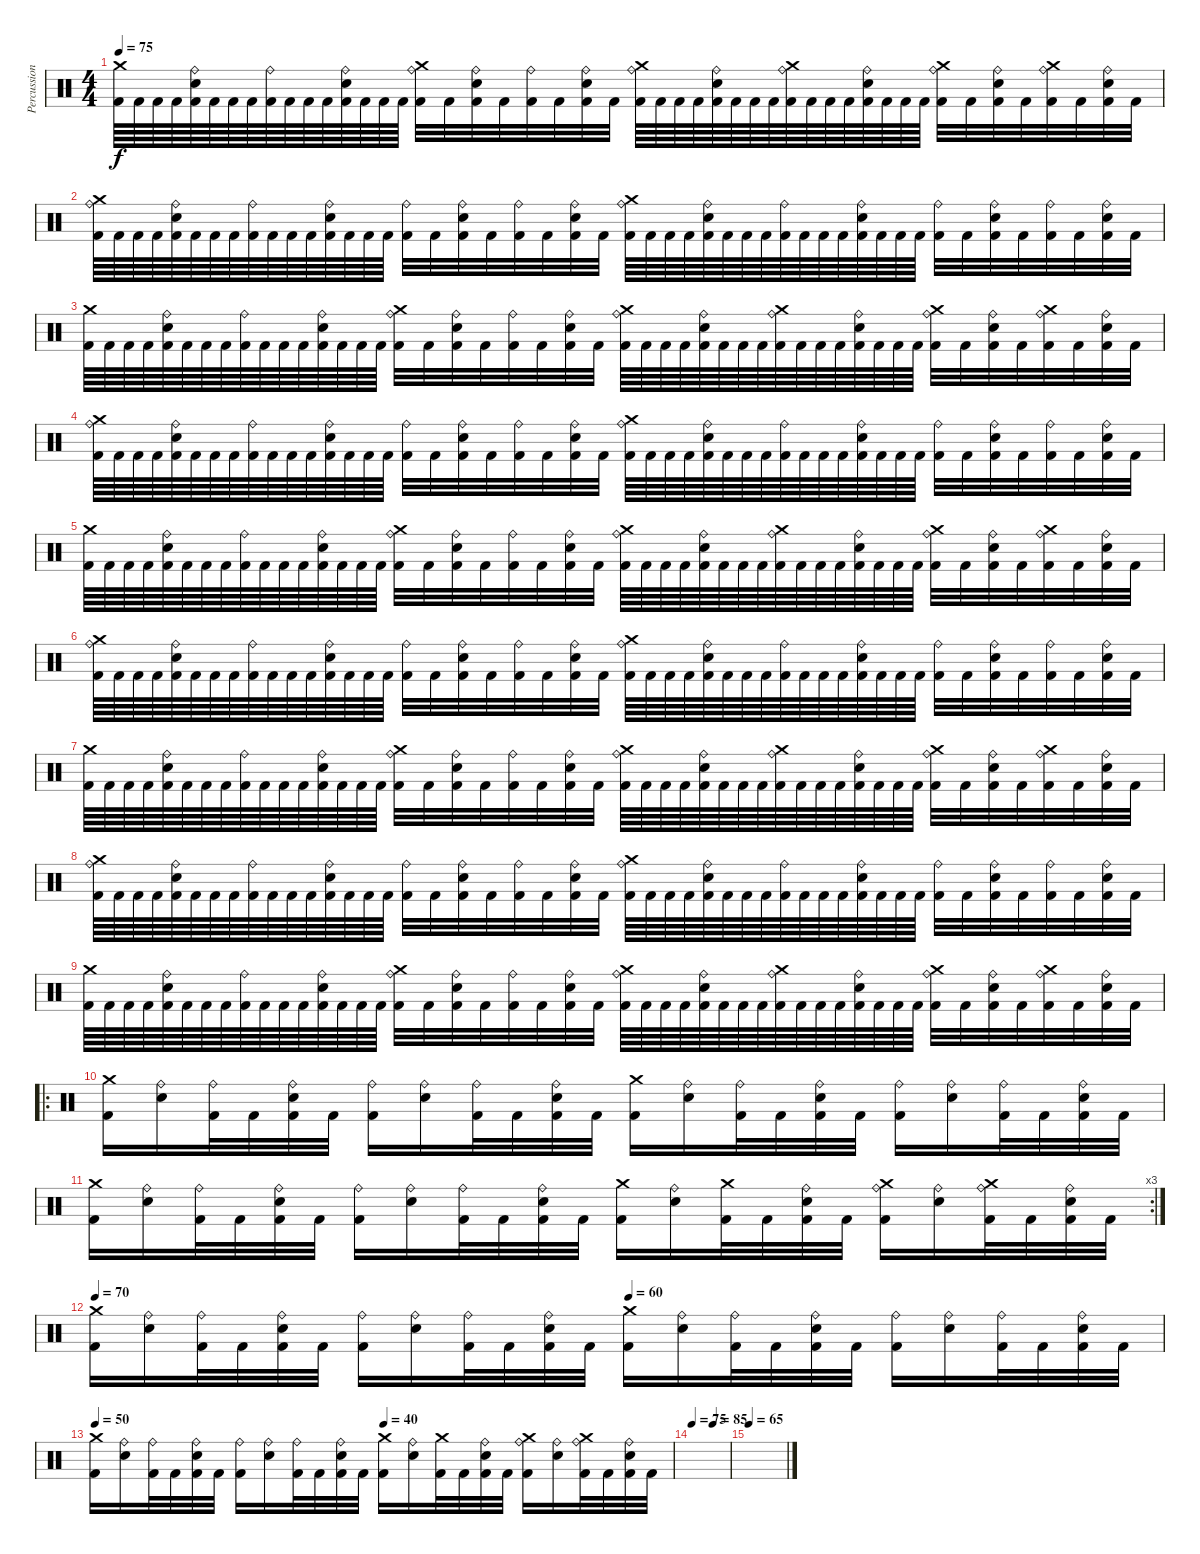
\track ("Percussion" "Percussion") {instrument percussion}
\staff {score}
\articulation defaults
\ts (4 4)
\tempo 75
\clef neutral
\ks c
("Crash medium (hit)" "Kick (hit) 2").64{dy f} "Kick (hit) 2".64 "Kick (hit) 2".64 "Kick (hit) 2".64 ("Ride (bell)" "Electric Snare (hit)" "Kick (hit) 2").64 "Kick (hit) 2".64 "Kick (hit) 2".64 "Kick (hit) 2".64 ("Ride (bell)" "Kick (hit) 2").64 "Kick (hit) 2".64 "Kick (hit) 2".64 "Kick (hit) 2".64 ("Ride (bell)" "Electric Snare (hit)" "Kick (hit) 2").64 "Kick (hit) 2".64 "Kick (hit) 2".64 "Kick (hit) 2".64 ("Crash medium (hit)" "Ride (bell)" "Kick (hit) 2").32 "Kick (hit) 2".32 ("Ride (bell)" "Electric Snare (hit)" "Kick (hit) 2").32 "Kick (hit) 2".32 ("Ride (bell)" "Kick (hit) 2").32 "Kick (hit) 2".32 ("Ride (bell)" "Electric Snare (hit)" "Kick (hit) 2").32 "Kick (hit) 2".32 ("Crash medium (hit)" "Ride (bell)" "Kick (hit) 2").64 "Kick (hit) 2".64 "Kick (hit) 2".64 "Kick (hit) 2".64 ("Ride (bell)" "Electric Snare (hit)" "Kick (hit) 2").64 "Kick (hit) 2".64 "Kick (hit) 2".64 "Kick (hit) 2".64 ("Crash medium (hit)" "Ride (bell)" "Kick (hit) 2").64 "Kick (hit) 2".64 "Kick (hit) 2".64 "Kick (hit) 2".64 ("Ride (bell)" "Electric Snare (hit)" "Kick (hit) 2").64 "Kick (hit) 2".64 "Kick (hit) 2".64 "Kick (hit) 2".64 ("Crash medium (hit)" "Ride (bell)" "Kick (hit) 2").32 "Kick (hit) 2".32 ("Ride (bell)" "Electric Snare (hit)" "Kick (hit) 2").32 "Kick (hit) 2".32 ("Crash medium (hit)" "Ride (bell)" "Kick (hit) 2").32 "Kick (hit) 2".32 ("Ride (bell)" "Electric Snare (hit)" "Kick (hit) 2").32 "Kick (hit) 2".32 |
("Crash medium (hit)" "Ride (bell)" "Kick (hit) 2").64 "Kick (hit) 2".64 "Kick (hit) 2".64 "Kick (hit) 2".64 ("Ride (bell)" "Electric Snare (hit)" "Kick (hit) 2").64 "Kick (hit) 2".64 "Kick (hit) 2".64 "Kick (hit) 2".64 ("Ride (bell)" "Kick (hit) 2").64 "Kick (hit) 2".64 "Kick (hit) 2".64 "Kick (hit) 2".64 ("Ride (bell)" "Electric Snare (hit)" "Kick (hit) 2").64 "Kick (hit) 2".64 "Kick (hit) 2".64 "Kick (hit) 2".64 ("Ride (bell)" "Kick (hit) 2").32 "Kick (hit) 2".32 ("Ride (bell)" "Electric Snare (hit)" "Kick (hit) 2").32 "Kick (hit) 2".32 ("Ride (bell)" "Kick (hit) 2").32 "Kick (hit) 2".32 ("Ride (bell)" "Electric Snare (hit)" "Kick (hit) 2").32 "Kick (hit) 2".32 ("Crash medium (hit)" "Ride (bell)" "Kick (hit) 2").64 "Kick (hit) 2".64 "Kick (hit) 2".64 "Kick (hit) 2".64 ("Ride (bell)" "Electric Snare (hit)" "Kick (hit) 2").64 "Kick (hit) 2".64 "Kick (hit) 2".64 "Kick (hit) 2".64 ("Ride (bell)" "Kick (hit) 2").64 "Kick (hit) 2".64 "Kick (hit) 2".64 "Kick (hit) 2".64 ("Ride (bell)" "Electric Snare (hit)" "Kick (hit) 2").64 "Kick (hit) 2".64 "Kick (hit) 2".64 "Kick (hit) 2".64 ("Ride (bell)" "Kick (hit) 2").32 "Kick (hit) 2".32 ("Ride (bell)" "Electric Snare (hit)" "Kick (hit) 2").32 "Kick (hit) 2".32 ("Ride (bell)" "Kick (hit) 2").32 "Kick (hit) 2".32 ("Ride (bell)" "Electric Snare (hit)" "Kick (hit) 2").32 "Kick (hit) 2".32 |
("Crash medium (hit)" "Kick (hit) 2").64 "Kick (hit) 2".64 "Kick (hit) 2".64 "Kick (hit) 2".64 ("Ride (bell)" "Electric Snare (hit)" "Kick (hit) 2").64 "Kick (hit) 2".64 "Kick (hit) 2".64 "Kick (hit) 2".64 ("Ride (bell)" "Kick (hit) 2").64 "Kick (hit) 2".64 "Kick (hit) 2".64 "Kick (hit) 2".64 ("Ride (bell)" "Electric Snare (hit)" "Kick (hit) 2").64 "Kick (hit) 2".64 "Kick (hit) 2".64 "Kick (hit) 2".64 ("Crash medium (hit)" "Ride (bell)" "Kick (hit) 2").32 "Kick (hit) 2".32 ("Ride (bell)" "Electric Snare (hit)" "Kick (hit) 2").32 "Kick (hit) 2".32 ("Ride (bell)" "Kick (hit) 2").32 "Kick (hit) 2".32 ("Ride (bell)" "Electric Snare (hit)" "Kick (hit) 2").32 "Kick (hit) 2".32 ("Crash medium (hit)" "Ride (bell)" "Kick (hit) 2").64 "Kick (hit) 2".64 "Kick (hit) 2".64 "Kick (hit) 2".64 ("Ride (bell)" "Electric Snare (hit)" "Kick (hit) 2").64 "Kick (hit) 2".64 "Kick (hit) 2".64 "Kick (hit) 2".64 ("Crash medium (hit)" "Ride (bell)" "Kick (hit) 2").64 "Kick (hit) 2".64 "Kick (hit) 2".64 "Kick (hit) 2".64 ("Ride (bell)" "Electric Snare (hit)" "Kick (hit) 2").64 "Kick (hit) 2".64 "Kick (hit) 2".64 "Kick (hit) 2".64 ("Crash medium (hit)" "Ride (bell)" "Kick (hit) 2").32 "Kick (hit) 2".32 ("Ride (bell)" "Electric Snare (hit)" "Kick (hit) 2").32 "Kick (hit) 2".32 ("Crash medium (hit)" "Ride (bell)" "Kick (hit) 2").32 "Kick (hit) 2".32 ("Ride (bell)" "Electric Snare (hit)" "Kick (hit) 2").32 "Kick (hit) 2".32 |
("Crash medium (hit)" "Ride (bell)" "Kick (hit) 2").64 "Kick (hit) 2".64 "Kick (hit) 2".64 "Kick (hit) 2".64 ("Ride (bell)" "Electric Snare (hit)" "Kick (hit) 2").64 "Kick (hit) 2".64 "Kick (hit) 2".64 "Kick (hit) 2".64 ("Ride (bell)" "Kick (hit) 2").64 "Kick (hit) 2".64 "Kick (hit) 2".64 "Kick (hit) 2".64 ("Ride (bell)" "Electric Snare (hit)" "Kick (hit) 2").64 "Kick (hit) 2".64 "Kick (hit) 2".64 "Kick (hit) 2".64 ("Ride (bell)" "Kick (hit) 2").32 "Kick (hit) 2".32 ("Ride (bell)" "Electric Snare (hit)" "Kick (hit) 2").32 "Kick (hit) 2".32 ("Ride (bell)" "Kick (hit) 2").32 "Kick (hit) 2".32 ("Ride (bell)" "Electric Snare (hit)" "Kick (hit) 2").32 "Kick (hit) 2".32 ("Crash medium (hit)" "Ride (bell)" "Kick (hit) 2").64 "Kick (hit) 2".64 "Kick (hit) 2".64 "Kick (hit) 2".64 ("Ride (bell)" "Electric Snare (hit)" "Kick (hit) 2").64 "Kick (hit) 2".64 "Kick (hit) 2".64 "Kick (hit) 2".64 ("Ride (bell)" "Kick (hit) 2").64 "Kick (hit) 2".64 "Kick (hit) 2".64 "Kick (hit) 2".64 ("Ride (bell)" "Electric Snare (hit)" "Kick (hit) 2").64 "Kick (hit) 2".64 "Kick (hit) 2".64 "Kick (hit) 2".64 ("Ride (bell)" "Kick (hit) 2").32 "Kick (hit) 2".32 ("Ride (bell)" "Electric Snare (hit)" "Kick (hit) 2").32 "Kick (hit) 2".32 ("Ride (bell)" "Kick (hit) 2").32 "Kick (hit) 2".32 ("Ride (bell)" "Electric Snare (hit)" "Kick (hit) 2").32 "Kick (hit) 2".32 |
("Crash medium (hit)" "Kick (hit) 2").64 "Kick (hit) 2".64 "Kick (hit) 2".64 "Kick (hit) 2".64 ("Ride (bell)" "Electric Snare (hit)" "Kick (hit) 2").64 "Kick (hit) 2".64 "Kick (hit) 2".64 "Kick (hit) 2".64 ("Ride (bell)" "Kick (hit) 2").64 "Kick (hit) 2".64 "Kick (hit) 2".64 "Kick (hit) 2".64 ("Ride (bell)" "Electric Snare (hit)" "Kick (hit) 2").64 "Kick (hit) 2".64 "Kick (hit) 2".64 "Kick (hit) 2".64 ("Crash medium (hit)" "Ride (bell)" "Kick (hit) 2").32 "Kick (hit) 2".32 ("Ride (bell)" "Electric Snare (hit)" "Kick (hit) 2").32 "Kick (hit) 2".32 ("Ride (bell)" "Kick (hit) 2").32 "Kick (hit) 2".32 ("Ride (bell)" "Electric Snare (hit)" "Kick (hit) 2").32 "Kick (hit) 2".32 ("Crash medium (hit)" "Ride (bell)" "Kick (hit) 2").64 "Kick (hit) 2".64 "Kick (hit) 2".64 "Kick (hit) 2".64 ("Ride (bell)" "Electric Snare (hit)" "Kick (hit) 2").64 "Kick (hit) 2".64 "Kick (hit) 2".64 "Kick (hit) 2".64 ("Crash medium (hit)" "Ride (bell)" "Kick (hit) 2").64 "Kick (hit) 2".64 "Kick (hit) 2".64 "Kick (hit) 2".64 ("Ride (bell)" "Electric Snare (hit)" "Kick (hit) 2").64 "Kick (hit) 2".64 "Kick (hit) 2".64 "Kick (hit) 2".64 ("Crash medium (hit)" "Ride (bell)" "Kick (hit) 2").32 "Kick (hit) 2".32 ("Ride (bell)" "Electric Snare (hit)" "Kick (hit) 2").32 "Kick (hit) 2".32 ("Crash medium (hit)" "Ride (bell)" "Kick (hit) 2").32 "Kick (hit) 2".32 ("Ride (bell)" "Electric Snare (hit)" "Kick (hit) 2").32 "Kick (hit) 2".32 |
("Crash medium (hit)" "Ride (bell)" "Kick (hit) 2").64 "Kick (hit) 2".64 "Kick (hit) 2".64 "Kick (hit) 2".64 ("Ride (bell)" "Electric Snare (hit)" "Kick (hit) 2").64 "Kick (hit) 2".64 "Kick (hit) 2".64 "Kick (hit) 2".64 ("Ride (bell)" "Kick (hit) 2").64 "Kick (hit) 2".64 "Kick (hit) 2".64 "Kick (hit) 2".64 ("Ride (bell)" "Electric Snare (hit)" "Kick (hit) 2").64 "Kick (hit) 2".64 "Kick (hit) 2".64 "Kick (hit) 2".64 ("Ride (bell)" "Kick (hit) 2").32 "Kick (hit) 2".32 ("Ride (bell)" "Electric Snare (hit)" "Kick (hit) 2").32 "Kick (hit) 2".32 ("Ride (bell)" "Kick (hit) 2").32 "Kick (hit) 2".32 ("Ride (bell)" "Electric Snare (hit)" "Kick (hit) 2").32 "Kick (hit) 2".32 ("Crash medium (hit)" "Ride (bell)" "Kick (hit) 2").64 "Kick (hit) 2".64 "Kick (hit) 2".64 "Kick (hit) 2".64 ("Ride (bell)" "Electric Snare (hit)" "Kick (hit) 2").64 "Kick (hit) 2".64 "Kick (hit) 2".64 "Kick (hit) 2".64 ("Ride (bell)" "Kick (hit) 2").64 "Kick (hit) 2".64 "Kick (hit) 2".64 "Kick (hit) 2".64 ("Ride (bell)" "Electric Snare (hit)" "Kick (hit) 2").64 "Kick (hit) 2".64 "Kick (hit) 2".64 "Kick (hit) 2".64 ("Ride (bell)" "Kick (hit) 2").32 "Kick (hit) 2".32 ("Ride (bell)" "Electric Snare (hit)" "Kick (hit) 2").32 "Kick (hit) 2".32 ("Ride (bell)" "Kick (hit) 2").32 "Kick (hit) 2".32 ("Ride (bell)" "Electric Snare (hit)" "Kick (hit) 2").32 "Kick (hit) 2".32 |
("Crash medium (hit)" "Kick (hit) 2").64 "Kick (hit) 2".64 "Kick (hit) 2".64 "Kick (hit) 2".64 ("Ride (bell)" "Electric Snare (hit)" "Kick (hit) 2").64 "Kick (hit) 2".64 "Kick (hit) 2".64 "Kick (hit) 2".64 ("Ride (bell)" "Kick (hit) 2").64 "Kick (hit) 2".64 "Kick (hit) 2".64 "Kick (hit) 2".64 ("Ride (bell)" "Electric Snare (hit)" "Kick (hit) 2").64 "Kick (hit) 2".64 "Kick (hit) 2".64 "Kick (hit) 2".64 ("Crash medium (hit)" "Ride (bell)" "Kick (hit) 2").32 "Kick (hit) 2".32 ("Ride (bell)" "Electric Snare (hit)" "Kick (hit) 2").32 "Kick (hit) 2".32 ("Ride (bell)" "Kick (hit) 2").32 "Kick (hit) 2".32 ("Ride (bell)" "Electric Snare (hit)" "Kick (hit) 2").32 "Kick (hit) 2".32 ("Crash medium (hit)" "Ride (bell)" "Kick (hit) 2").64 "Kick (hit) 2".64 "Kick (hit) 2".64 "Kick (hit) 2".64 ("Ride (bell)" "Electric Snare (hit)" "Kick (hit) 2").64 "Kick (hit) 2".64 "Kick (hit) 2".64 "Kick (hit) 2".64 ("Crash medium (hit)" "Ride (bell)" "Kick (hit) 2").64 "Kick (hit) 2".64 "Kick (hit) 2".64 "Kick (hit) 2".64 ("Ride (bell)" "Electric Snare (hit)" "Kick (hit) 2").64 "Kick (hit) 2".64 "Kick (hit) 2".64 "Kick (hit) 2".64 ("Crash medium (hit)" "Ride (bell)" "Kick (hit) 2").32 "Kick (hit) 2".32 ("Ride (bell)" "Electric Snare (hit)" "Kick (hit) 2").32 "Kick (hit) 2".32 ("Crash medium (hit)" "Ride (bell)" "Kick (hit) 2").32 "Kick (hit) 2".32 ("Ride (bell)" "Electric Snare (hit)" "Kick (hit) 2").32 "Kick (hit) 2".32 |
("Crash medium (hit)" "Ride (bell)" "Kick (hit) 2").64 "Kick (hit) 2".64 "Kick (hit) 2".64 "Kick (hit) 2".64 ("Ride (bell)" "Electric Snare (hit)" "Kick (hit) 2").64 "Kick (hit) 2".64 "Kick (hit) 2".64 "Kick (hit) 2".64 ("Ride (bell)" "Kick (hit) 2").64 "Kick (hit) 2".64 "Kick (hit) 2".64 "Kick (hit) 2".64 ("Ride (bell)" "Electric Snare (hit)" "Kick (hit) 2").64 "Kick (hit) 2".64 "Kick (hit) 2".64 "Kick (hit) 2".64 ("Ride (bell)" "Kick (hit) 2").32 "Kick (hit) 2".32 ("Ride (bell)" "Electric Snare (hit)" "Kick (hit) 2").32 "Kick (hit) 2".32 ("Ride (bell)" "Kick (hit) 2").32 "Kick (hit) 2".32 ("Ride (bell)" "Electric Snare (hit)" "Kick (hit) 2").32 "Kick (hit) 2".32 ("Crash medium (hit)" "Ride (bell)" "Kick (hit) 2").64 "Kick (hit) 2".64 "Kick (hit) 2".64 "Kick (hit) 2".64 ("Ride (bell)" "Electric Snare (hit)" "Kick (hit) 2").64 "Kick (hit) 2".64 "Kick (hit) 2".64 "Kick (hit) 2".64 ("Ride (bell)" "Kick (hit) 2").64 "Kick (hit) 2".64 "Kick (hit) 2".64 "Kick (hit) 2".64 ("Ride (bell)" "Electric Snare (hit)" "Kick (hit) 2").64 "Kick (hit) 2".64 "Kick (hit) 2".64 "Kick (hit) 2".64 ("Ride (bell)" "Kick (hit) 2").32 "Kick (hit) 2".32 ("Ride (bell)" "Electric Snare (hit)" "Kick (hit) 2").32 "Kick (hit) 2".32 ("Ride (bell)" "Kick (hit) 2").32 "Kick (hit) 2".32 ("Ride (bell)" "Electric Snare (hit)" "Kick (hit) 2").32 "Kick (hit) 2".32 |
("Crash medium (hit)" "Kick (hit) 2").64 "Kick (hit) 2".64 "Kick (hit) 2".64 "Kick (hit) 2".64 ("Ride (bell)" "Electric Snare (hit)" "Kick (hit) 2").64 "Kick (hit) 2".64 "Kick (hit) 2".64 "Kick (hit) 2".64 ("Ride (bell)" "Kick (hit) 2").64 "Kick (hit) 2".64 "Kick (hit) 2".64 "Kick (hit) 2".64 ("Ride (bell)" "Electric Snare (hit)" "Kick (hit) 2").64 "Kick (hit) 2".64 "Kick (hit) 2".64 "Kick (hit) 2".64 ("Crash medium (hit)" "Ride (bell)" "Kick (hit) 2").32 "Kick (hit) 2".32 ("Ride (bell)" "Electric Snare (hit)" "Kick (hit) 2").32 "Kick (hit) 2".32 ("Ride (bell)" "Kick (hit) 2").32 "Kick (hit) 2".32 ("Ride (bell)" "Electric Snare (hit)" "Kick (hit) 2").32 "Kick (hit) 2".32 ("Crash medium (hit)" "Ride (bell)" "Kick (hit) 2").64 "Kick (hit) 2".64 "Kick (hit) 2".64 "Kick (hit) 2".64 ("Ride (bell)" "Electric Snare (hit)" "Kick (hit) 2").64 "Kick (hit) 2".64 "Kick (hit) 2".64 "Kick (hit) 2".64 ("Crash medium (hit)" "Ride (bell)" "Kick (hit) 2").64 "Kick (hit) 2".64 "Kick (hit) 2".64 "Kick (hit) 2".64 ("Ride (bell)" "Electric Snare (hit)" "Kick (hit) 2").64 "Kick (hit) 2".64 "Kick (hit) 2".64 "Kick (hit) 2".64 ("Crash medium (hit)" "Ride (bell)" "Kick (hit) 2").32 "Kick (hit) 2".32 ("Ride (bell)" "Electric Snare (hit)" "Kick (hit) 2").32 "Kick (hit) 2".32 ("Crash medium (hit)" "Ride (bell)" "Kick (hit) 2").32 "Kick (hit) 2".32 ("Ride (bell)" "Electric Snare (hit)" "Kick (hit) 2").32 "Kick (hit) 2".32 |
\ro
("Crash medium (hit)" "Kick (hit) 2").16 ("Ride (bell)" "Electric Snare (hit)").16 ("Ride (bell)" "Kick (hit) 2").32 "Kick (hit) 2".32 ("Ride (bell)" "Electric Snare (hit)" "Kick (hit) 2").32 "Kick (hit) 2".32 ("Ride (bell)" "Kick (hit) 2").16 ("Ride (bell)" "Electric Snare (hit)").16 ("Ride (bell)" "Kick (hit) 2").32 "Kick (hit) 2".32 ("Ride (bell)" "Electric Snare (hit)" "Kick (hit) 2").32 "Kick (hit) 2".32 ("Crash medium (hit)" "Kick (hit) 2").16 ("Ride (bell)" "Electric Snare (hit)").16 ("Ride (bell)" "Kick (hit) 2").32 "Kick (hit) 2".32 ("Ride (bell)" "Electric Snare (hit)" "Kick (hit) 2").32 "Kick (hit) 2".32 ("Ride (bell)" "Kick (hit) 2").16 ("Ride (bell)" "Electric Snare (hit)").16 ("Ride (bell)" "Kick (hit) 2").32 "Kick (hit) 2".32 ("Ride (bell)" "Electric Snare (hit)" "Kick (hit) 2").32 "Kick (hit) 2".32 |
\rc 3
("Crash medium (hit)" "Kick (hit) 2").16 ("Ride (bell)" "Electric Snare (hit)").16 ("Ride (bell)" "Kick (hit) 2").32 "Kick (hit) 2".32 ("Ride (bell)" "Electric Snare (hit)" "Kick (hit) 2").32 "Kick (hit) 2".32 ("Ride (bell)" "Kick (hit) 2").16 ("Ride (bell)" "Electric Snare (hit)").16 ("Ride (bell)" "Kick (hit) 2").32 "Kick (hit) 2".32 ("Ride (bell)" "Electric Snare (hit)" "Kick (hit) 2").32 "Kick (hit) 2".32 ("Crash medium (hit)" "Kick (hit) 2").16 ("Ride (bell)" "Electric Snare (hit)").16 ("Crash medium (hit)" "Kick (hit) 2").32 "Kick (hit) 2".32 ("Ride (bell)" "Electric Snare (hit)" "Kick (hit) 2").32 "Kick (hit) 2".32 ("Crash medium (hit)" "Ride (bell)" "Kick (hit) 2").16 ("Ride (bell)" "Electric Snare (hit)").16 ("Crash medium (hit)" "Ride (bell)" "Kick (hit) 2").32 "Kick (hit) 2".32 ("Ride (bell)" "Electric Snare (hit)" "Kick (hit) 2").32 "Kick (hit) 2".32 |
\tempo 70
\tempo (60 0.5)
("Crash medium (hit)" "Kick (hit) 2").16 ("Ride (bell)" "Electric Snare (hit)").16 ("Ride (bell)" "Kick (hit) 2").32 "Kick (hit) 2".32 ("Ride (bell)" "Electric Snare (hit)" "Kick (hit) 2").32 "Kick (hit) 2".32 ("Ride (bell)" "Kick (hit) 2").16 ("Ride (bell)" "Electric Snare (hit)").16 ("Ride (bell)" "Kick (hit) 2").32 "Kick (hit) 2".32 ("Ride (bell)" "Electric Snare (hit)" "Kick (hit) 2").32 "Kick (hit) 2".32 ("Crash medium (hit)" "Kick (hit) 2").16 ("Ride (bell)" "Electric Snare (hit)").16 ("Ride (bell)" "Kick (hit) 2").32 "Kick (hit) 2".32 ("Ride (bell)" "Electric Snare (hit)" "Kick (hit) 2").32 "Kick (hit) 2".32 ("Ride (bell)" "Kick (hit) 2").16 ("Ride (bell)" "Electric Snare (hit)").16 ("Ride (bell)" "Kick (hit) 2").32 "Kick (hit) 2".32 ("Ride (bell)" "Electric Snare (hit)" "Kick (hit) 2").32 "Kick (hit) 2".32 |
\tempo 50
\tempo (40 0.5)
("Crash medium (hit)" "Kick (hit) 2").16 ("Ride (bell)" "Electric Snare (hit)").16 ("Ride (bell)" "Kick (hit) 2").32 "Kick (hit) 2".32 ("Ride (bell)" "Electric Snare (hit)" "Kick (hit) 2").32 "Kick (hit) 2".32 ("Ride (bell)" "Kick (hit) 2").16 ("Ride (bell)" "Electric Snare (hit)").16 ("Ride (bell)" "Kick (hit) 2").32 "Kick (hit) 2".32 ("Ride (bell)" "Electric Snare (hit)" "Kick (hit) 2").32 "Kick (hit) 2".32 ("Crash medium (hit)" "Kick (hit) 2").16 ("Ride (bell)" "Electric Snare (hit)").16 ("Crash medium (hit)" "Kick (hit) 2").32 "Kick (hit) 2".32 ("Ride (bell)" "Electric Snare (hit)" "Kick (hit) 2").32 "Kick (hit) 2".32 ("Crash medium (hit)" "Ride (bell)" "Kick (hit) 2").16 ("Ride (bell)" "Electric Snare (hit)").16 ("Crash medium (hit)" "Ride (bell)" "Kick (hit) 2").32 "Kick (hit) 2".32 ("Ride (bell)" "Electric Snare (hit)" "Kick (hit) 2").32 "Kick (hit) 2".32 |
\tempo (85 0.5625)
\tempo 75
|
\tempo 65
